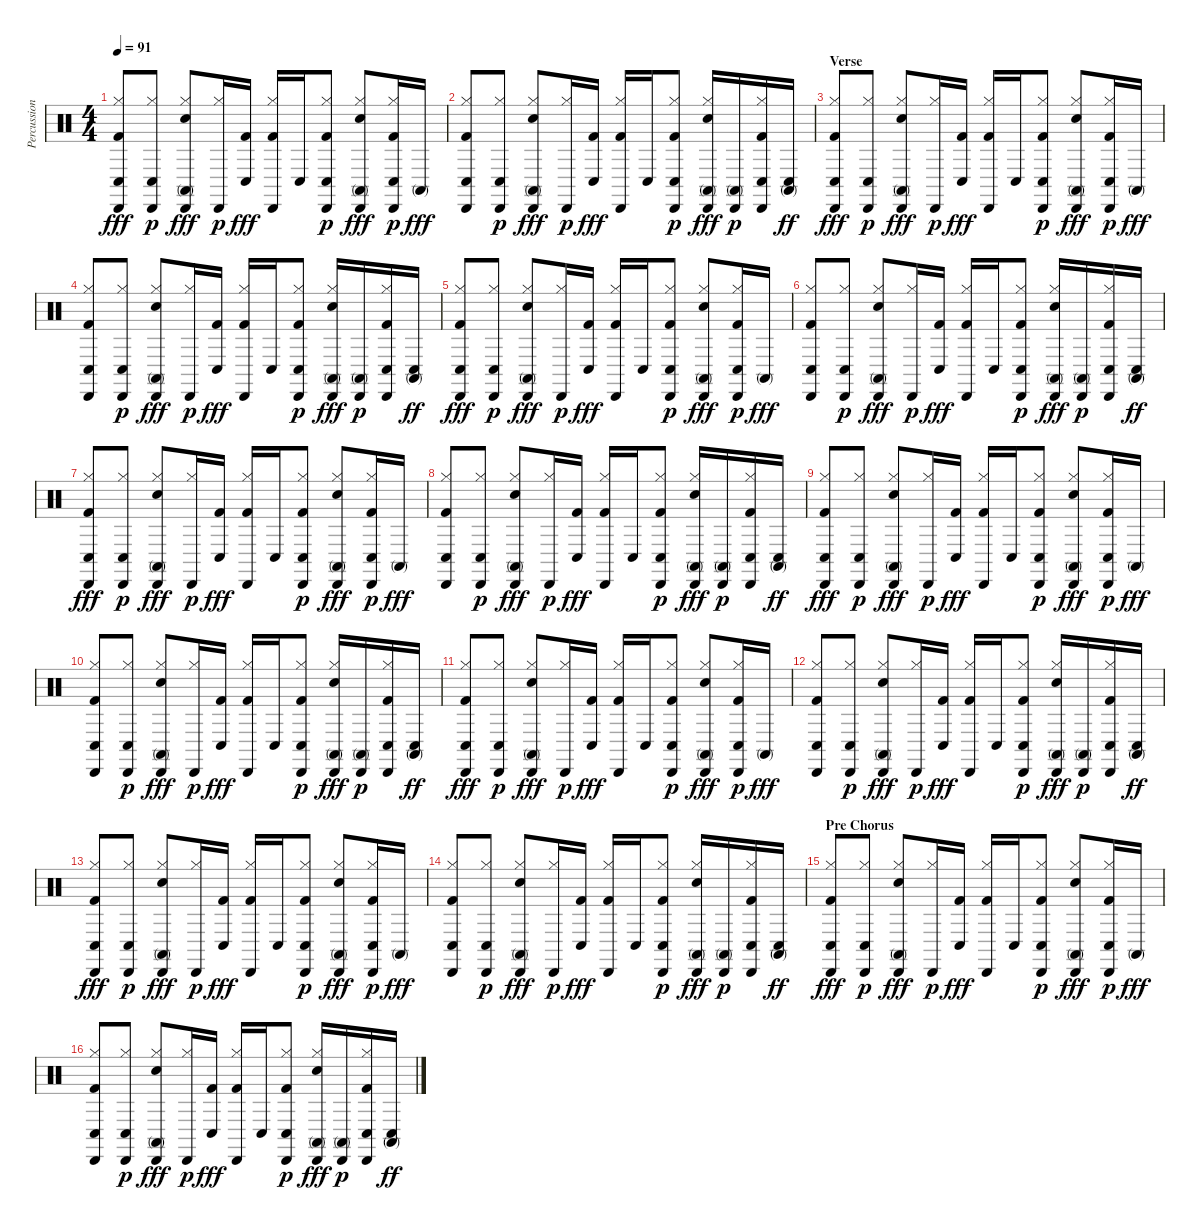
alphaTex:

\track ("Percussion" "Percussion") {instrument percussion}
\staff {score}
\articulation defaults
\ts (4 4)
\tempo 91
\clef neutral
\ks c
("Kick (hit) 2" "Hi-Hat (closed)" "Conga low (hit)" "Cabasa (hit)").8{dy fff} ("Hi-Hat (closed)" "Conga low (hit)" "Cabasa (hit)").8{dy p} ("Snare (hit) 2" "Hi-Hat (closed)" "Conga high (mute)" "Cabasa (hit)").8{dy fff} ("Hi-Hat (closed)" "Cabasa (hit)").16{dy p} ("Kick (hit) 2" "Conga low (hit)").16{dy fff} ("Kick (hit) 2" "Hi-Hat (closed)" "Cabasa (hit)").16 "Conga low (hit)".16 ("Kick (hit) 2" "Hi-Hat (closed)" "Conga low (hit)" "Cabasa (hit)").8{dy p} ("Snare (hit) 2" "Hi-Hat (closed)" "Conga high (mute)" "Cabasa (hit)").8{dy fff} ("Kick (hit) 2" "Hi-Hat (closed)" "Conga low (hit)" "Cabasa (hit)").16{dy p} "Conga high (mute)".16{dy fff} |
("Kick (hit) 2" "Hi-Hat (closed)" "Conga low (hit)" "Cabasa (hit)").8 ("Hi-Hat (closed)" "Conga low (hit)" "Cabasa (hit)").8{dy p} ("Snare (hit) 2" "Hi-Hat (closed)" "Conga high (mute)" "Cabasa (hit)").8{dy fff} ("Hi-Hat (closed)" "Cabasa (hit)").16{dy p} ("Kick (hit) 2" "Conga low (hit)").16{dy fff} ("Kick (hit) 2" "Hi-Hat (closed)" "Cabasa (hit)").16 "Conga low (hit)".16 ("Kick (hit) 2" "Hi-Hat (closed)" "Conga low (hit)" "Cabasa (hit)").8{dy p} ("Snare (hit) 2" "Hi-Hat (closed)" "Conga high (mute)" "Cabasa (hit)").16{dy fff} ("Conga high (mute)" "Cabasa (hit)").16{dy p} ("Kick (hit) 2" "Hi-Hat (closed)" "Conga low (hit)" "Cabasa (hit)").16 ("Conga high (mute)" "Conga low (hit)").16{dy ff} |
\section ("" "Verse")
("Kick (hit) 2" "Hi-Hat (closed)" "Conga low (hit)" "Cabasa (hit)").8{dy fff} ("Hi-Hat (closed)" "Conga low (hit)" "Cabasa (hit)").8{dy p} ("Snare (hit) 2" "Hi-Hat (closed)" "Conga high (mute)" "Cabasa (hit)").8{dy fff} ("Hi-Hat (closed)" "Cabasa (hit)").16{dy p} ("Kick (hit) 2" "Conga low (hit)").16{dy fff} ("Kick (hit) 2" "Hi-Hat (closed)" "Cabasa (hit)").16 "Conga low (hit)".16 ("Kick (hit) 2" "Hi-Hat (closed)" "Conga low (hit)" "Cabasa (hit)").8{dy p} ("Snare (hit) 2" "Hi-Hat (closed)" "Conga high (mute)" "Cabasa (hit)").8{dy fff} ("Kick (hit) 2" "Hi-Hat (closed)" "Conga low (hit)" "Cabasa (hit)").16{dy p} "Conga high (mute)".16{dy fff} |
("Kick (hit) 2" "Hi-Hat (closed)" "Conga low (hit)" "Cabasa (hit)").8 ("Hi-Hat (closed)" "Conga low (hit)" "Cabasa (hit)").8{dy p} ("Snare (hit) 2" "Hi-Hat (closed)" "Conga high (mute)" "Cabasa (hit)").8{dy fff} ("Hi-Hat (closed)" "Cabasa (hit)").16{dy p} ("Kick (hit) 2" "Conga low (hit)").16{dy fff} ("Kick (hit) 2" "Hi-Hat (closed)" "Cabasa (hit)").16 "Conga low (hit)".16 ("Kick (hit) 2" "Hi-Hat (closed)" "Conga low (hit)" "Cabasa (hit)").8{dy p} ("Snare (hit) 2" "Hi-Hat (closed)" "Conga high (mute)" "Cabasa (hit)").16{dy fff} ("Conga high (mute)" "Cabasa (hit)").16{dy p} ("Kick (hit) 2" "Hi-Hat (closed)" "Conga low (hit)" "Cabasa (hit)").16 ("Conga high (mute)" "Conga low (hit)").16{dy ff} |
("Kick (hit) 2" "Hi-Hat (closed)" "Conga low (hit)" "Cabasa (hit)").8{dy fff} ("Hi-Hat (closed)" "Conga low (hit)" "Cabasa (hit)").8{dy p} ("Snare (hit) 2" "Hi-Hat (closed)" "Conga high (mute)" "Cabasa (hit)").8{dy fff} ("Hi-Hat (closed)" "Cabasa (hit)").16{dy p} ("Kick (hit) 2" "Conga low (hit)").16{dy fff} ("Kick (hit) 2" "Hi-Hat (closed)" "Cabasa (hit)").16 "Conga low (hit)".16 ("Kick (hit) 2" "Hi-Hat (closed)" "Conga low (hit)" "Cabasa (hit)").8{dy p} ("Snare (hit) 2" "Hi-Hat (closed)" "Conga high (mute)" "Cabasa (hit)").8{dy fff} ("Kick (hit) 2" "Hi-Hat (closed)" "Conga low (hit)" "Cabasa (hit)").16{dy p} "Conga high (mute)".16{dy fff} |
("Kick (hit) 2" "Hi-Hat (closed)" "Conga low (hit)" "Cabasa (hit)").8 ("Hi-Hat (closed)" "Conga low (hit)" "Cabasa (hit)").8{dy p} ("Snare (hit) 2" "Hi-Hat (closed)" "Conga high (mute)" "Cabasa (hit)").8{dy fff} ("Hi-Hat (closed)" "Cabasa (hit)").16{dy p} ("Kick (hit) 2" "Conga low (hit)").16{dy fff} ("Kick (hit) 2" "Hi-Hat (closed)" "Cabasa (hit)").16 "Conga low (hit)".16 ("Kick (hit) 2" "Hi-Hat (closed)" "Conga low (hit)" "Cabasa (hit)").8{dy p} ("Snare (hit) 2" "Hi-Hat (closed)" "Conga high (mute)" "Cabasa (hit)").16{dy fff} ("Conga high (mute)" "Cabasa (hit)").16{dy p} ("Kick (hit) 2" "Hi-Hat (closed)" "Conga low (hit)" "Cabasa (hit)").16 ("Conga high (mute)" "Conga low (hit)").16{dy ff} |
("Kick (hit) 2" "Hi-Hat (closed)" "Conga low (hit)" "Cabasa (hit)").8{dy fff} ("Hi-Hat (closed)" "Conga low (hit)" "Cabasa (hit)").8{dy p} ("Snare (hit) 2" "Hi-Hat (closed)" "Conga high (mute)" "Cabasa (hit)").8{dy fff} ("Hi-Hat (closed)" "Cabasa (hit)").16{dy p} ("Kick (hit) 2" "Conga low (hit)").16{dy fff} ("Kick (hit) 2" "Hi-Hat (closed)" "Cabasa (hit)").16 "Conga low (hit)".16 ("Kick (hit) 2" "Hi-Hat (closed)" "Conga low (hit)" "Cabasa (hit)").8{dy p} ("Snare (hit) 2" "Hi-Hat (closed)" "Conga high (mute)" "Cabasa (hit)").8{dy fff} ("Kick (hit) 2" "Hi-Hat (closed)" "Conga low (hit)" "Cabasa (hit)").16{dy p} "Conga high (mute)".16{dy fff} |
("Kick (hit) 2" "Hi-Hat (closed)" "Conga low (hit)" "Cabasa (hit)").8 ("Hi-Hat (closed)" "Conga low (hit)" "Cabasa (hit)").8{dy p} ("Snare (hit) 2" "Hi-Hat (closed)" "Conga high (mute)" "Cabasa (hit)").8{dy fff} ("Hi-Hat (closed)" "Cabasa (hit)").16{dy p} ("Kick (hit) 2" "Conga low (hit)").16{dy fff} ("Kick (hit) 2" "Hi-Hat (closed)" "Cabasa (hit)").16 "Conga low (hit)".16 ("Kick (hit) 2" "Hi-Hat (closed)" "Conga low (hit)" "Cabasa (hit)").8{dy p} ("Snare (hit) 2" "Hi-Hat (closed)" "Conga high (mute)" "Cabasa (hit)").16{dy fff} ("Conga high (mute)" "Cabasa (hit)").16{dy p} ("Kick (hit) 2" "Hi-Hat (closed)" "Conga low (hit)" "Cabasa (hit)").16 ("Conga high (mute)" "Conga low (hit)").16{dy ff} |
("Kick (hit) 2" "Hi-Hat (closed)" "Conga low (hit)" "Cabasa (hit)").8{dy fff} ("Hi-Hat (closed)" "Conga low (hit)" "Cabasa (hit)").8{dy p} ("Snare (hit) 2" "Hi-Hat (closed)" "Conga high (mute)" "Cabasa (hit)").8{dy fff} ("Hi-Hat (closed)" "Cabasa (hit)").16{dy p} ("Kick (hit) 2" "Conga low (hit)").16{dy fff} ("Kick (hit) 2" "Hi-Hat (closed)" "Cabasa (hit)").16 "Conga low (hit)".16 ("Kick (hit) 2" "Hi-Hat (closed)" "Conga low (hit)" "Cabasa (hit)").8{dy p} ("Snare (hit) 2" "Hi-Hat (closed)" "Conga high (mute)" "Cabasa (hit)").8{dy fff} ("Kick (hit) 2" "Hi-Hat (closed)" "Conga low (hit)" "Cabasa (hit)").16{dy p} "Conga high (mute)".16{dy fff} |
("Kick (hit) 2" "Hi-Hat (closed)" "Conga low (hit)" "Cabasa (hit)").8 ("Hi-Hat (closed)" "Conga low (hit)" "Cabasa (hit)").8{dy p} ("Snare (hit) 2" "Hi-Hat (closed)" "Conga high (mute)" "Cabasa (hit)").8{dy fff} ("Hi-Hat (closed)" "Cabasa (hit)").16{dy p} ("Kick (hit) 2" "Conga low (hit)").16{dy fff} ("Kick (hit) 2" "Hi-Hat (closed)" "Cabasa (hit)").16 "Conga low (hit)".16 ("Kick (hit) 2" "Hi-Hat (closed)" "Conga low (hit)" "Cabasa (hit)").8{dy p} ("Snare (hit) 2" "Hi-Hat (closed)" "Conga high (mute)" "Cabasa (hit)").16{dy fff} ("Conga high (mute)" "Cabasa (hit)").16{dy p} ("Kick (hit) 2" "Hi-Hat (closed)" "Conga low (hit)" "Cabasa (hit)").16 ("Conga high (mute)" "Conga low (hit)").16{dy ff} |
("Kick (hit) 2" "Hi-Hat (closed)" "Conga low (hit)" "Cabasa (hit)").8{dy fff} ("Hi-Hat (closed)" "Conga low (hit)" "Cabasa (hit)").8{dy p} ("Snare (hit) 2" "Hi-Hat (closed)" "Conga high (mute)" "Cabasa (hit)").8{dy fff} ("Hi-Hat (closed)" "Cabasa (hit)").16{dy p} ("Kick (hit) 2" "Conga low (hit)").16{dy fff} ("Kick (hit) 2" "Hi-Hat (closed)" "Cabasa (hit)").16 "Conga low (hit)".16 ("Kick (hit) 2" "Hi-Hat (closed)" "Conga low (hit)" "Cabasa (hit)").8{dy p} ("Snare (hit) 2" "Hi-Hat (closed)" "Conga high (mute)" "Cabasa (hit)").8{dy fff} ("Kick (hit) 2" "Hi-Hat (closed)" "Conga low (hit)" "Cabasa (hit)").16{dy p} "Conga high (mute)".16{dy fff} |
("Kick (hit) 2" "Hi-Hat (closed)" "Conga low (hit)" "Cabasa (hit)").8 ("Hi-Hat (closed)" "Conga low (hit)" "Cabasa (hit)").8{dy p} ("Snare (hit) 2" "Hi-Hat (closed)" "Conga high (mute)" "Cabasa (hit)").8{dy fff} ("Hi-Hat (closed)" "Cabasa (hit)").16{dy p} ("Kick (hit) 2" "Conga low (hit)").16{dy fff} ("Kick (hit) 2" "Hi-Hat (closed)" "Cabasa (hit)").16 "Conga low (hit)".16 ("Kick (hit) 2" "Hi-Hat (closed)" "Conga low (hit)" "Cabasa (hit)").8{dy p} ("Snare (hit) 2" "Hi-Hat (closed)" "Conga high (mute)" "Cabasa (hit)").16{dy fff} ("Conga high (mute)" "Cabasa (hit)").16{dy p} ("Kick (hit) 2" "Hi-Hat (closed)" "Conga low (hit)" "Cabasa (hit)").16 ("Conga high (mute)" "Conga low (hit)").16{dy ff} |
("Kick (hit) 2" "Hi-Hat (closed)" "Conga low (hit)" "Cabasa (hit)").8{dy fff} ("Hi-Hat (closed)" "Conga low (hit)" "Cabasa (hit)").8{dy p} ("Snare (hit) 2" "Hi-Hat (closed)" "Conga high (mute)" "Cabasa (hit)").8{dy fff} ("Hi-Hat (closed)" "Cabasa (hit)").16{dy p} ("Kick (hit) 2" "Conga low (hit)").16{dy fff} ("Kick (hit) 2" "Hi-Hat (closed)" "Cabasa (hit)").16 "Conga low (hit)".16 ("Kick (hit) 2" "Hi-Hat (closed)" "Conga low (hit)" "Cabasa (hit)").8{dy p} ("Snare (hit) 2" "Hi-Hat (closed)" "Conga high (mute)" "Cabasa (hit)").8{dy fff} ("Kick (hit) 2" "Hi-Hat (closed)" "Conga low (hit)" "Cabasa (hit)").16{dy p} "Conga high (mute)".16{dy fff} |
("Kick (hit) 2" "Hi-Hat (closed)" "Conga low (hit)" "Cabasa (hit)").8 ("Hi-Hat (closed)" "Conga low (hit)" "Cabasa (hit)").8{dy p} ("Snare (hit) 2" "Hi-Hat (closed)" "Conga high (mute)" "Cabasa (hit)").8{dy fff} ("Hi-Hat (closed)" "Cabasa (hit)").16{dy p} ("Kick (hit) 2" "Conga low (hit)").16{dy fff} ("Kick (hit) 2" "Hi-Hat (closed)" "Cabasa (hit)").16 "Conga low (hit)".16 ("Kick (hit) 2" "Hi-Hat (closed)" "Conga low (hit)" "Cabasa (hit)").8{dy p} ("Snare (hit) 2" "Hi-Hat (closed)" "Conga high (mute)" "Cabasa (hit)").16{dy fff} ("Conga high (mute)" "Cabasa (hit)").16{dy p} ("Kick (hit) 2" "Hi-Hat (closed)" "Conga low (hit)" "Cabasa (hit)").16 ("Conga high (mute)" "Conga low (hit)").16{dy ff} |
\section ("" "Pre Chorus")
("Kick (hit) 2" "Hi-Hat (closed)" "Conga low (hit)" "Cabasa (hit)").8{dy fff} ("Hi-Hat (closed)" "Conga low (hit)" "Cabasa (hit)").8{dy p} ("Snare (hit) 2" "Hi-Hat (closed)" "Conga high (mute)" "Cabasa (hit)").8{dy fff} ("Hi-Hat (closed)" "Cabasa (hit)").16{dy p} ("Kick (hit) 2" "Conga low (hit)").16{dy fff} ("Kick (hit) 2" "Hi-Hat (closed)" "Cabasa (hit)").16 "Conga low (hit)".16 ("Kick (hit) 2" "Hi-Hat (closed)" "Conga low (hit)" "Cabasa (hit)").8{dy p} ("Snare (hit) 2" "Hi-Hat (closed)" "Conga high (mute)" "Cabasa (hit)").8{dy fff} ("Kick (hit) 2" "Hi-Hat (closed)" "Conga low (hit)" "Cabasa (hit)").16{dy p} "Conga high (mute)".16{dy fff} |
("Kick (hit) 2" "Hi-Hat (closed)" "Conga low (hit)" "Cabasa (hit)").8 ("Hi-Hat (closed)" "Conga low (hit)" "Cabasa (hit)").8{dy p} ("Snare (hit) 2" "Hi-Hat (closed)" "Conga high (mute)" "Cabasa (hit)").8{dy fff} ("Hi-Hat (closed)" "Cabasa (hit)").16{dy p} ("Kick (hit) 2" "Conga low (hit)").16{dy fff} ("Kick (hit) 2" "Hi-Hat (closed)" "Cabasa (hit)").16 "Conga low (hit)".16 ("Kick (hit) 2" "Hi-Hat (closed)" "Conga low (hit)" "Cabasa (hit)").8{dy p} ("Snare (hit) 2" "Hi-Hat (closed)" "Conga high (mute)" "Cabasa (hit)").16{dy fff} ("Conga high (mute)" "Cabasa (hit)").16{dy p} ("Kick (hit) 2" "Hi-Hat (closed)" "Conga low (hit)" "Cabasa (hit)").16 ("Conga high (mute)" "Conga low (hit)").16{dy ff}
